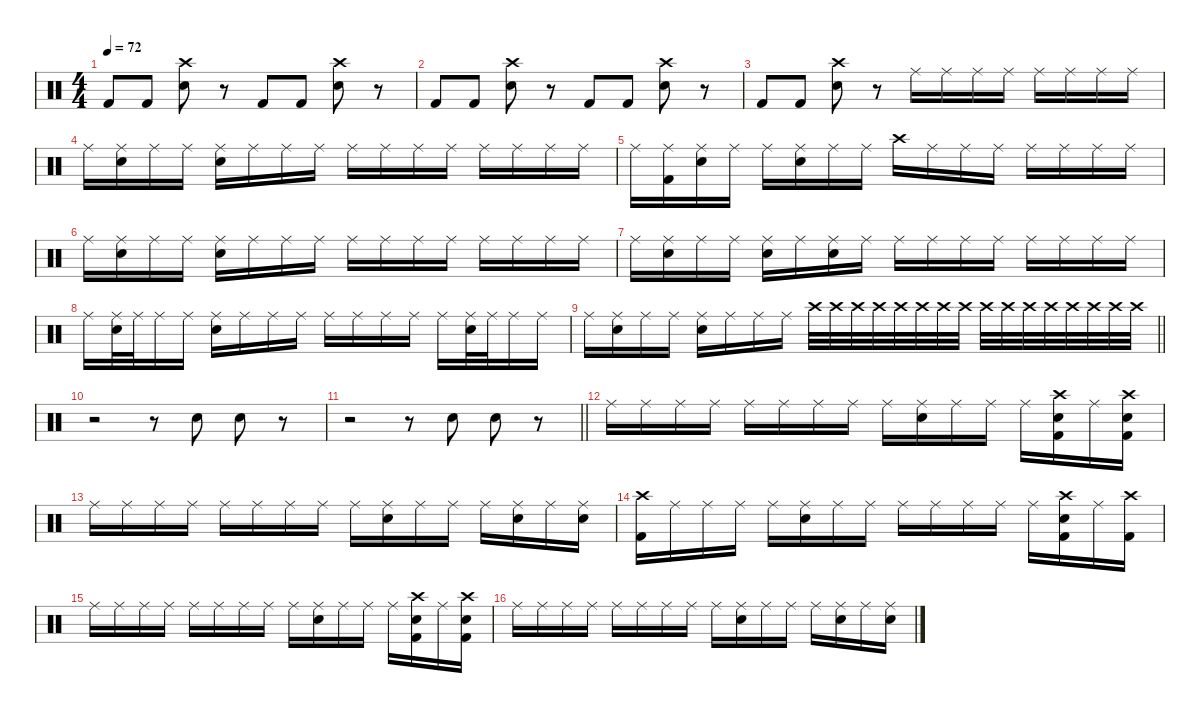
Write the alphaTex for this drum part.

\defaultSystemsLayout 4
\hideDynamics
\bracketExtendMode nobrackets
\singleTrackTrackNamePolicy hidden
\multiTrackTrackNamePolicy hidden
\otherSystemsTrackNameOrientation horizontal
\track ("Drums" "drm.") {instrument percussion}
\staff {score}
\articulation defaults
\ts (4 4)
\tempo 72
\clef neutral
\ks c "Kick (hit) 2".8{dy f beam Up} "Kick (hit) 2".8{dy fff beam Up}
("Snare (hit) 2" "Crash high (hit)").8{beam Down} r.8{beam Down} "Kick (hit) 2".8{beam Up} "Kick (hit) 2".8{beam Up} ("Snare (hit) 2" "Crash high (hit)").8{beam Down} r.8{beam Down} |
"Kick (hit) 2".8{dy f beam Up} "Kick (hit) 2".8{dy fff beam Up} ("Snare (hit) 2" "Crash high (hit)").8{beam Down} r.8{beam Down} "Kick (hit) 2".8{beam Up} "Kick (hit) 2".8{beam Up} ("Snare (hit) 2" "Crash high (hit)").8{beam Down} r.8{beam Down} |
"Kick (hit) 2".8{dy f beam Up} "Kick (hit) 2".8{dy fff beam Up} ("Snare (hit) 2" "Crash high (hit)").8{beam Down} r.8{beam Down} "Ride (middle)".16{dy f beam Down} "Ride (middle)".16{dy mp beam Down} "Ride (middle)".16{dy mf beam Down} "Ride (middle)".16{dy ff beam Down} "Ride (middle)".16{dy mp beam Down} "Ride (middle)".16{beam Down} "Ride (middle)".16{dy f beam Down} "Ride (middle)".16{dy mp beam Down} |
"Ride (middle)".16{dy f beam Down} ("Snare (hit) 2" "Ride (middle)").16{dy ff beam Down} "Ride (middle)".16{dy mp beam Down} "Ride (middle)".16{dy mf beam Down} ("Snare (hit) 2" "Ride (middle)").16{dy fff beam Down} "Ride (middle)".16{dy mf beam Down} "Ride (middle)".16{beam Down} "Ride (middle)".16{dy f beam Down} "Ride (middle)".16{beam Down} "Ride (middle)".16{dy mf beam Down} "Ride (middle)".16{beam Down} "Ride (middle)".16{dy f beam Down} "Ride (middle)".16{dy mf beam Down} "Ride (middle)".16{dy mp beam Down} "Ride (middle)".16{dy f beam Down} "Ride (middle)".16{beam Down} |
"Ride (middle)".16{beam Down} ("Kick (hit) 2" "Ride (middle)").16{beam Down} ("Snare (hit) 2" "Ride (middle)").16{beam Down} "Ride (middle)".16{dy mf beam Down} "Ride (middle)".16{dy f beam Down} ("Snare (hit) 2" "Ride (middle)").16{dy ff beam Down} "Ride (middle)".16{dy f beam Down} "Ride (middle)".16{beam Down} "Crash high (hit)".16{dy mf beam Down} "Ride (middle)".16{dy mp beam Down} "Ride (middle)".16{dy f beam Down} "Ride (middle)".16{beam Down} "Ride (middle)".16{beam Down} "Ride (middle)".16{dy mf beam Down} "Ride (middle)".16{beam Down} "Ride (middle)".16{dy f beam Down} |
"Ride (middle)".16{beam Down} ("Snare (hit) 2" "Ride (middle)").16{dy ff beam Down} "Ride (middle)".16{dy f beam Down} "Ride (middle)".16{dy mf beam Down} ("Snare (hit) 2" "Ride (middle)").16{dy ff beam Down} "Ride (middle)".16{dy mf beam Down} "Ride (middle)".16{dy f beam Down} "Ride (middle)".16{beam Down} "Ride (middle)".16{beam Down} "Ride (middle)".16{dy mf beam Down} "Ride (middle)".16{beam Down} "Ride (middle)".16{dy f beam Down} "Ride (middle)".16{beam Down} "Ride (middle)".16{dy mp beam Down} "Ride (middle)".16{dy mf beam Down} "Ride (middle)".16{dy f beam Down} |
"Ride (middle)".16{beam Down} ("Snare (hit) 2" "Ride (middle)").16{beam Down} "Ride (middle)".16{dy ff beam Down} "Ride (middle)".16{dy mf beam Down} ("Snare (hit) 2" "Ride (middle)").16{dy ff beam Down} "Ride (middle)".16{dy mf beam Down} ("Snare (hit) 2" "Ride (middle)").16{dy ff beam Down} "Ride (middle)".16{dy f beam Down} "Ride (middle)".16{dy ff beam Down} "Ride (middle)".16{dy f beam Down} "Ride (middle)".16{dy mf beam Down} "Ride (middle)".16{dy ff beam Down} "Ride (middle)".16{dy mp beam Down} "Ride (middle)".16{dy mf beam Down} "Ride (middle)".16{dy ff beam Down} "Ride (middle)".16{dy mf beam Down} |
"Ride (middle)".16{dy f beam Down} ("Snare (hit) 2" "Ride (middle)").32{beam Down} "Ride (middle)".32{beam Down} "Ride (middle)".16{beam Down} "Ride (middle)".16{dy mf beam Down} ("Snare (hit) 2" "Ride (middle)").16{dy ff beam Down} "Ride (middle)".16{dy f beam Down} "Ride (middle)".16{beam Down} "Ride (middle)".16{beam Down} "Ride (middle)".16{dy ff beam Down} "Ride (middle)".16{dy f beam Down} "Ride (middle)".16{beam Down} "Ride (middle)".16{dy ff beam Down} "Ride (middle)".16{dy f beam Down} ("Snare (hit) 2" "Ride (middle)").32{beam Down} "Ride (middle)".32{beam Down} "Ride (middle)".16{beam Down} "Ride (middle)".16{beam Down} |
\barLineRight lightlight "Ride (middle)".16{beam Down}
("Snare (hit) 2" "Ride (middle)").16{beam Down} "Ride (middle)".16{dy mp beam Down} "Ride (middle)".16{dy mf beam Down} ("Snare (hit) 2" "Ride (middle)").16{dy f beam Down} "Ride (middle)".16{dy mf beam Down} "Ride (middle)".16{dy f beam Down} "Ride (middle)".16{beam Down} "Crash high (hit)".32{dy pp beam Down} "Crash high (hit)".32{beam Down} "Crash high (hit)".32{dy p beam Down} "Crash high (hit)".32{beam Down} "Crash high (hit)".32{beam Down} "Crash high (hit)".32{beam Down} "Crash high (hit)".32{beam Down} "Crash high (hit)".32{beam Down} "Crash high (hit)".32{dy mp beam Down} "Crash high (hit)".32{beam Down} "Crash high (hit)".32{beam Down} "Crash high (hit)".32{beam Down} "Crash high (hit)".32{beam Down} "Crash high (hit)".32{beam Down} "Crash high (hit)".32{dy mf beam Down} "Crash high (hit)".32{beam Down} |
r.2{beam Down} r.8{beam Down} "Hand Clap (hit)".8{dy fff beam Down} "Hand Clap (hit)".8{beam Down} r.8{beam Down} |
\barLineRight lightlight
r.2{beam Down} r.8{beam Down} "Hand Clap (hit)".8{beam Down} "Hand Clap (hit)".8{beam Down} r.8{beam Down} |
"Ride (middle)".16{dy f beam Down} "Ride (middle)".16{dy mf beam Down} "Ride (middle)".16{dy mp beam Down} "Ride (middle)".16{dy ff beam Down} "Ride (middle)".16{dy mp beam Down} "Ride (middle)".16{beam Down} "Ride (middle)".16{dy f beam Down} "Ride (middle)".16{dy mp beam Down} "Ride (middle)".16{beam Down} ("Snare (hit) 2" "Ride (middle)").16{dy f beam Down} "Ride (middle)".16{dy mp beam Down} "Ride (middle)".16{beam Down} "Ride (middle)".16{dy f beam Down} ("Kick (hit) 2" "Snare (hit) 2" "Crash high (hit)").16{dy fff beam Down} "Ride (middle)".16{dy mf beam Down} ("Kick (hit) 2" "Snare (hit) 2" "Crash high (hit)").16{dy ff beam Down} |
"Ride (middle)".16{dy f beam Down} "Ride (middle)".16{dy mp beam Down} "Ride (middle)".16{dy mf beam Down} "Ride (middle)".16{dy ff beam Down} "Ride (middle)".16{dy mp beam Down} "Ride (middle)".16{beam Down} "Ride (middle)".16{dy f beam Down} "Ride (middle)".16{dy mp beam Down} "Ride (middle)".16{beam Down} ("Snare (hit) 2" "Ride (middle)").16{dy mf beam Down} "Ride (middle)".16{dy mp beam Down} "Ride (middle)".16{dy mf beam Down} "Ride (middle)".16{dy f beam Down} ("Snare (hit) 2" "Ride (middle)").16{dy mf beam Down} "Ride (middle)".16{dy ff beam Down} ("Snare (hit) 2" "Ride (middle)").16{dy mf beam Down} |
("Kick (hit) 2" "Crash high (hit)").16{dy f beam Down} "Ride (middle)".16{dy mp beam Down} "Ride (middle)".16{beam Down} "Ride (middle)".16{dy f beam Down} "Ride (middle)".16{dy mp beam Down} ("Snare (hit) 2" "Ride (middle)").16{dy f beam Down} "Ride (middle)".16{dy ff beam Down} "Ride (middle)".16{dy mf beam Down} "Ride (middle)".16{beam Down} "Ride (middle)".16{dy f beam Down} "Ride (middle)".16{dy mp beam Down} "Ride (middle)".16{dy f beam Down} "Ride (middle)".16{beam Down} ("Kick (hit) 2" "Snare (hit) 2" "Crash high (hit)").16{dy ff beam Down} "Ride (middle)".16{dy f beam Down} ("Kick (hit) 2" "Crash high (hit)").16{dy ff beam Down} |
"Ride (middle)".16{dy f beam Down} "Ride (middle)".16{dy mf beam Down} "Ride (middle)".16{dy mp beam Down} "Ride (middle)".16{dy ff beam Down} "Ride (middle)".16{dy mp beam Down} "Ride (middle)".16{beam Down} "Ride (middle)".16{dy f beam Down} "Ride (middle)".16{dy mp beam Down} "Ride (middle)".16{beam Down} ("Snare (hit) 2" "Ride (middle)").16{dy f beam Down} "Ride (middle)".16{dy mp beam Down} "Ride (middle)".16{beam Down} "Ride (middle)".16{dy f beam Down} ("Kick (hit) 2" "Snare (hit) 2" "Crash high (hit)").16{dy fff beam Down} "Ride (middle)".16{dy mf beam Down} ("Kick (hit) 2" "Snare (hit) 2" "Crash high (hit)").16{dy ff beam Down} |
"Ride (middle)".16{dy f beam Down} "Ride (middle)".16{dy mp beam Down} "Ride (middle)".16{dy mf beam Down} "Ride (middle)".16{dy ff beam Down} "Ride (middle)".16{dy mp beam Down} "Ride (middle)".16{beam Down} "Ride (middle)".16{dy f beam Down} "Ride (middle)".16{dy mp beam Down} "Ride (middle)".16{beam Down} ("Snare (hit) 2" "Ride (middle)").16{dy mf beam Down} "Ride (middle)".16{dy mp beam Down} "Ride (middle)".16{dy mf beam Down} "Ride (middle)".16{dy f beam Down} ("Snare (hit) 2" "Ride (middle)").16{dy mf beam Down} "Ride (middle)".16{dy ff beam Down} ("Snare (hit) 2" "Ride (middle)").16{dy mf beam Down}
